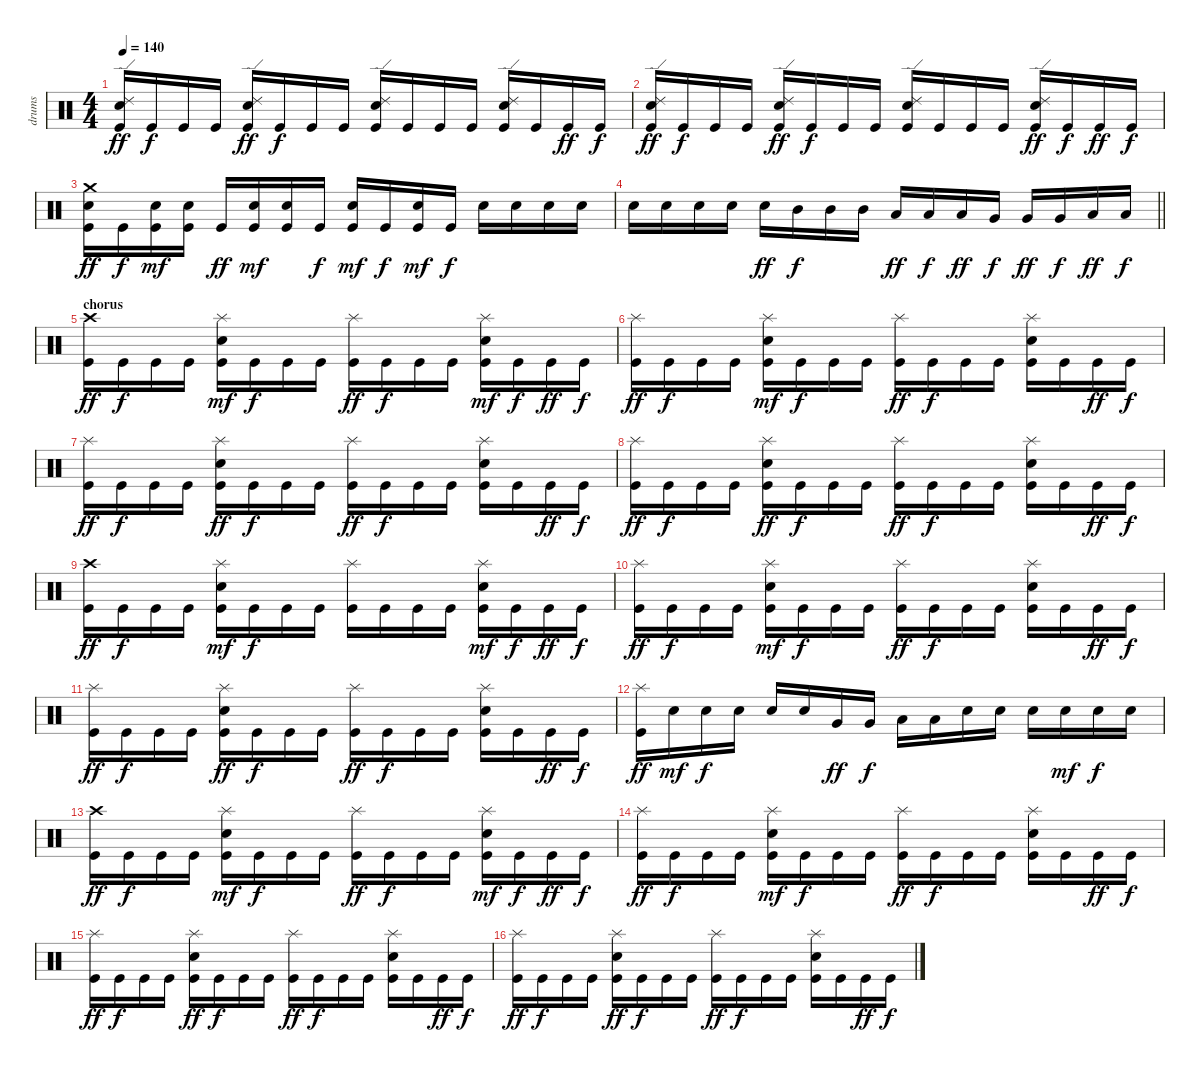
\track ("drums" "drums") {instrument percussion}
\staff {score}
\articulation defaults
\ts (4 4)
\tempo 140
\clef neutral
\ks c
("Ride (edge) 2" "Electric Snare (hit)" "Kick (hit)").16{dy ff} "Kick (hit)".16{dy f} "Kick (hit)".16 "Kick (hit)".16 ("Ride (edge) 2" "Electric Snare (hit)" "Kick (hit)").16{dy ff} "Kick (hit)".16{dy f} "Kick (hit)".16 "Kick (hit)".16 ("Ride (edge) 2" "Electric Snare (hit)" "Kick (hit)").16 "Kick (hit)".16 "Kick (hit)".16 "Kick (hit)".16 ("Ride (edge) 2" "Electric Snare (hit)" "Kick (hit)").16 "Kick (hit)".16 "Kick (hit)".16{dy ff} "Kick (hit)".16{dy f} |
("Ride (edge) 2" "Electric Snare (hit)" "Kick (hit)").16{dy ff} "Kick (hit)".16{dy f} "Kick (hit)".16 "Kick (hit)".16 ("Ride (edge) 2" "Electric Snare (hit)" "Kick (hit)").16{dy ff} "Kick (hit)".16{dy f} "Kick (hit)".16 "Kick (hit)".16 ("Ride (edge) 2" "Electric Snare (hit)" "Kick (hit)").16 "Kick (hit)".16 "Kick (hit)".16 "Kick (hit)".16 ("Ride (edge) 2" "Electric Snare (hit)" "Kick (hit)").16{dy ff} "Kick (hit)".16{dy f} "Kick (hit)".16{dy ff} "Kick (hit)".16{dy f} |
("Crash medium (hit)" "Electric Snare (hit)" "Kick (hit)").16{dy ff} "Kick (hit)".16{dy f} ("Electric Snare (hit)" "Kick (hit)").16{dy mf} ("Electric Snare (hit)" "Kick (hit)").16 "Kick (hit)".16{dy ff} ("Electric Snare (hit)" "Kick (hit)").16{dy mf} ("Electric Snare (hit)" "Kick (hit)").16 "Kick (hit)".16{dy f} ("Electric Snare (hit)" "Kick (hit)").16{dy mf} "Kick (hit)".16{dy f} ("Electric Snare (hit)" "Kick (hit)").16{dy mf} "Kick (hit)".16{dy f} "Electric Snare (hit)".16 "Electric Snare (hit)".16 "Electric Snare (hit)".16 "Electric Snare (hit)".16 |
\barLineRight lightlight "Electric Snare (hit)".16 "Electric Snare (hit)".16 "Electric Snare (hit)".16 "Electric Snare (hit)".16 "Electric Snare (hit)".16{dy ff} "Mid Tom (hit)".16{dy f} "Mid Tom (hit)".16 "Mid Tom (hit)".16 "Low Tom (hit)".16{dy ff} "Low Tom (hit)".16{dy f} "Low Tom (hit)".16{dy ff} "Very Low Tom (hit)".16{dy f} "Very Low Tom (hit)".16{dy ff} "Very Low Tom (hit)".16{dy f} "Low Floor Tom (hit)".16{dy ff} "Low Floor Tom (hit)".16{dy f}
|
\section ("" "chorus")
("Crash high (hit)" "Kick (hit)").16{dy ff} "Kick (hit)".16{dy f} "Kick (hit)".16 "Kick (hit)".16 ("Splash (hit)" "Electric Snare (hit)" "Kick (hit)").16{dy mf} "Kick (hit)".16{dy f} "Kick (hit)".16 "Kick (hit)".16 ("Splash (hit)" "Kick (hit)").16{dy ff} "Kick (hit)".16{dy f} "Kick (hit)".16 "Kick (hit)".16 ("Splash (hit)" "Electric Snare (hit)" "Kick (hit)").16{dy mf} "Kick (hit)".16{dy f} "Kick (hit)".16{dy ff} "Kick (hit)".16{dy f} |
("Splash (hit)" "Kick (hit)").16{dy ff} "Kick (hit)".16{dy f} "Kick (hit)".16 "Kick (hit)".16 ("Splash (hit)" "Electric Snare (hit)" "Kick (hit)").16{dy mf} "Kick (hit)".16{dy f} "Kick (hit)".16 "Kick (hit)".16 ("Splash (hit)" "Kick (hit)").16{dy ff} "Kick (hit)".16{dy f} "Kick (hit)".16 "Kick (hit)".16 ("Splash (hit)" "Electric Snare (hit)" "Kick (hit)").16 "Kick (hit)".16 "Kick (hit)".16{dy ff} "Kick (hit)".16{dy f} |
("Splash (hit)" "Kick (hit)").16{dy ff} "Kick (hit)".16{dy f} "Kick (hit)".16 "Kick (hit)".16 ("Splash (hit)" "Electric Snare (hit)" "Kick (hit)").16{dy ff} "Kick (hit)".16{dy f} "Kick (hit)".16 "Kick (hit)".16 ("Splash (hit)" "Kick (hit)").16{dy ff} "Kick (hit)".16{dy f} "Kick (hit)".16 "Kick (hit)".16 ("Splash (hit)" "Electric Snare (hit)" "Kick (hit)").16 "Kick (hit)".16 "Kick (hit)".16{dy ff} "Kick (hit)".16{dy f} |
("Splash (hit)" "Kick (hit)").16{dy ff} "Kick (hit)".16{dy f} "Kick (hit)".16 "Kick (hit)".16 ("Splash (hit)" "Electric Snare (hit)" "Kick (hit)").16{dy ff} "Kick (hit)".16{dy f} "Kick (hit)".16 "Kick (hit)".16 ("Splash (hit)" "Kick (hit)").16{dy ff} "Kick (hit)".16{dy f} "Kick (hit)".16 "Kick (hit)".16 ("Splash (hit)" "Electric Snare (hit)" "Kick (hit)").16 "Kick (hit)".16 "Kick (hit)".16{dy ff} "Kick (hit)".16{dy f} |
("Crash high (hit)" "Kick (hit)").16{dy ff} "Kick (hit)".16{dy f} "Kick (hit)".16 "Kick (hit)".16 ("Splash (hit)" "Electric Snare (hit)" "Kick (hit)").16{dy mf} "Kick (hit)".16{dy f} "Kick (hit)".16 "Kick (hit)".16 ("Splash (hit)" "Kick (hit)").16 "Kick (hit)".16 "Kick (hit)".16 "Kick (hit)".16 ("Splash (hit)" "Electric Snare (hit)" "Kick (hit)").16{dy mf} "Kick (hit)".16{dy f} "Kick (hit)".16{dy ff} "Kick (hit)".16{dy f} |
("Splash (hit)" "Kick (hit)").16{dy ff} "Kick (hit)".16{dy f} "Kick (hit)".16 "Kick (hit)".16 ("Splash (hit)" "Electric Snare (hit)" "Kick (hit)").16{dy mf} "Kick (hit)".16{dy f} "Kick (hit)".16 "Kick (hit)".16 ("Splash (hit)" "Kick (hit)").16{dy ff} "Kick (hit)".16{dy f} "Kick (hit)".16 "Kick (hit)".16 ("Splash (hit)" "Electric Snare (hit)" "Kick (hit)").16 "Kick (hit)".16 "Kick (hit)".16{dy ff} "Kick (hit)".16{dy f} |
("Splash (hit)" "Kick (hit)").16{dy ff} "Kick (hit)".16{dy f} "Kick (hit)".16 "Kick (hit)".16 ("Splash (hit)" "Electric Snare (hit)" "Kick (hit)").16{dy ff} "Kick (hit)".16{dy f} "Kick (hit)".16 "Kick (hit)".16 ("Splash (hit)" "Kick (hit)").16{dy ff} "Kick (hit)".16{dy f} "Kick (hit)".16 "Kick (hit)".16 ("Splash (hit)" "Electric Snare (hit)" "Kick (hit)").16 "Kick (hit)".16 "Kick (hit)".16{dy ff} "Kick (hit)".16{dy f} |
("Splash (hit)" "Kick (hit)").16{dy ff} "Electric Snare (hit)".16{dy mf} "Electric Snare (hit)".16{dy f} "Electric Snare (hit)".16 "Electric Snare (hit)".16 "Electric Snare (hit)".16 "Very Low Tom (hit)".16{dy ff} "Very Low Tom (hit)".16{dy f} "Low Floor Tom (hit)".16 "Low Floor Tom (hit)".16 "Electric Snare (hit)".16 "Electric Snare (hit)".16 "Electric Snare (hit)".16 "Electric Snare (hit)".16{dy mf} "Electric Snare (hit)".16{dy f} "Electric Snare (hit)".16 |
("Crash high (hit)" "Kick (hit)").16{dy ff} "Kick (hit)".16{dy f} "Kick (hit)".16 "Kick (hit)".16 ("Splash (hit)" "Electric Snare (hit)" "Kick (hit)").16{dy mf} "Kick (hit)".16{dy f} "Kick (hit)".16 "Kick (hit)".16 ("Splash (hit)" "Kick (hit)").16{dy ff} "Kick (hit)".16{dy f} "Kick (hit)".16 "Kick (hit)".16 ("Splash (hit)" "Electric Snare (hit)" "Kick (hit)").16{dy mf} "Kick (hit)".16{dy f} "Kick (hit)".16{dy ff} "Kick (hit)".16{dy f} |
("Splash (hit)" "Kick (hit)").16{dy ff} "Kick (hit)".16{dy f} "Kick (hit)".16 "Kick (hit)".16 ("Splash (hit)" "Electric Snare (hit)" "Kick (hit)").16{dy mf} "Kick (hit)".16{dy f} "Kick (hit)".16 "Kick (hit)".16 ("Splash (hit)" "Kick (hit)").16{dy ff} "Kick (hit)".16{dy f} "Kick (hit)".16 "Kick (hit)".16 ("Splash (hit)" "Electric Snare (hit)" "Kick (hit)").16 "Kick (hit)".16 "Kick (hit)".16{dy ff} "Kick (hit)".16{dy f} |
("Splash (hit)" "Kick (hit)").16{dy ff} "Kick (hit)".16{dy f} "Kick (hit)".16 "Kick (hit)".16 ("Splash (hit)" "Electric Snare (hit)" "Kick (hit)").16{dy ff} "Kick (hit)".16{dy f} "Kick (hit)".16 "Kick (hit)".16 ("Splash (hit)" "Kick (hit)").16{dy ff} "Kick (hit)".16{dy f} "Kick (hit)".16 "Kick (hit)".16 ("Splash (hit)" "Electric Snare (hit)" "Kick (hit)").16 "Kick (hit)".16 "Kick (hit)".16{dy ff} "Kick (hit)".16{dy f} |
("Splash (hit)" "Kick (hit)").16{dy ff} "Kick (hit)".16{dy f} "Kick (hit)".16 "Kick (hit)".16 ("Splash (hit)" "Electric Snare (hit)" "Kick (hit)").16{dy ff} "Kick (hit)".16{dy f} "Kick (hit)".16 "Kick (hit)".16 ("Splash (hit)" "Kick (hit)").16{dy ff} "Kick (hit)".16{dy f} "Kick (hit)".16 "Kick (hit)".16 ("Splash (hit)" "Electric Snare (hit)" "Kick (hit)").16 "Kick (hit)".16 "Kick (hit)".16{dy ff} "Kick (hit)".16{dy f}
